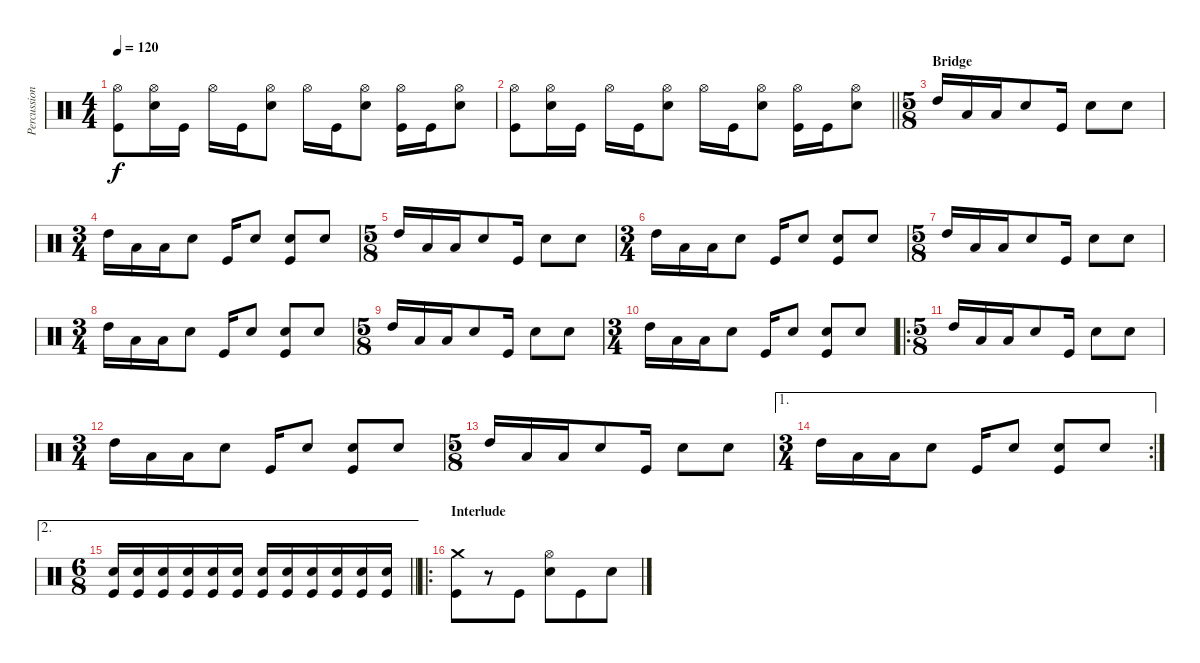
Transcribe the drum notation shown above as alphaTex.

\track ("Percussion" "Percussion") {instrument percussion}
\staff {score}
\articulation defaults
\ts (4 4)
\tempo 120
\clef neutral
\ks c
("Hi-Hat (open)" "Kick (hit)").8{dy f} ("Hi-Hat (open)" "Snare (hit) 2").16 "Kick (hit)".16 "Hi-Hat (open)".16 "Kick (hit)".16 ("Hi-Hat (open)" "Snare (hit) 2").8 "Hi-Hat (open)".16 "Kick (hit)".16 ("Hi-Hat (open)" "Snare (hit) 2").8 ("Hi-Hat (open)" "Kick (hit)").16 "Kick (hit)".16 ("Hi-Hat (open)" "Snare (hit) 2").8 |
\barLineRight lightlight
("Hi-Hat (open)" "Kick (hit)").8 ("Hi-Hat (open)" "Snare (hit) 2").16 "Kick (hit)".16 "Hi-Hat (open)".16 "Kick (hit)".16 ("Hi-Hat (open)" "Snare (hit) 2").8 "Hi-Hat (open)".16 "Kick (hit)".16 ("Hi-Hat (open)" "Snare (hit) 2").8 ("Hi-Hat (open)" "Kick (hit)").16 "Kick (hit)".16 ("Hi-Hat (open)" "Snare (hit) 2").8 |
\ts (5 8)
\section ("" "Bridge")
"High Tom (hit)".16 "Low Tom (hit)".16 "Low Tom (hit)".16 "Snare (hit) 2".8 "Kick (hit)".16 "Snare (hit) 2".8 "Snare (hit) 2".8 |
\ts (3 4)
"High Tom (hit)".16 "Low Tom (hit)".16 "Low Tom (hit)".16 "Snare (hit) 2".8 "Kick (hit)".16 "Snare (hit) 2".8 ("Snare (hit) 2" "Kick (hit)").8 "Snare (hit) 2".8 |
\ts (5 8)
"High Tom (hit)".16 "Low Tom (hit)".16 "Low Tom (hit)".16 "Snare (hit) 2".8 "Kick (hit)".16 "Snare (hit) 2".8 "Snare (hit) 2".8 |
\ts (3 4)
"High Tom (hit)".16 "Low Tom (hit)".16 "Low Tom (hit)".16 "Snare (hit) 2".8 "Kick (hit)".16 "Snare (hit) 2".8 ("Snare (hit) 2" "Kick (hit)").8 "Snare (hit) 2".8 |
\ts (5 8)
"High Tom (hit)".16 "Low Tom (hit)".16 "Low Tom (hit)".16 "Snare (hit) 2".8 "Kick (hit)".16 "Snare (hit) 2".8 "Snare (hit) 2".8 |
\ts (3 4)
"High Tom (hit)".16 "Low Tom (hit)".16 "Low Tom (hit)".16 "Snare (hit) 2".8 "Kick (hit)".16 "Snare (hit) 2".8 ("Snare (hit) 2" "Kick (hit)").8 "Snare (hit) 2".8 |
\ts (5 8)
"High Tom (hit)".16 "Low Tom (hit)".16 "Low Tom (hit)".16 "Snare (hit) 2".8 "Kick (hit)".16 "Snare (hit) 2".8 "Snare (hit) 2".8 |
\ts (3 4)
"High Tom (hit)".16 "Low Tom (hit)".16 "Low Tom (hit)".16 "Snare (hit) 2".8 "Kick (hit)".16 "Snare (hit) 2".8 ("Snare (hit) 2" "Kick (hit)").8 "Snare (hit) 2".8 |
\ro
\ts (5 8)
"High Tom (hit)".16 "Low Tom (hit)".16 "Low Tom (hit)".16 "Snare (hit) 2".8 "Kick (hit)".16 "Snare (hit) 2".8 "Snare (hit) 2".8 |
\ts (3 4)
"High Tom (hit)".16 "Low Tom (hit)".16 "Low Tom (hit)".16 "Snare (hit) 2".8 "Kick (hit)".16 "Snare (hit) 2".8 ("Snare (hit) 2" "Kick (hit)").8 "Snare (hit) 2".8 |
\ts (5 8)
"High Tom (hit)".16 "Low Tom (hit)".16 "Low Tom (hit)".16 "Snare (hit) 2".8 "Kick (hit)".16 "Snare (hit) 2".8 "Snare (hit) 2".8 |
\ae 1
\rc 2
\ts (3 4)
"High Tom (hit)".16 "Low Tom (hit)".16 "Low Tom (hit)".16 "Snare (hit) 2".8 "Kick (hit)".16 "Snare (hit) 2".8 ("Snare (hit) 2" "Kick (hit)").8 "Snare (hit) 2".8 |
\ae 2
\ts (6 8)
\barLineRight lightlight
("Snare (hit) 2" "Kick (hit)").16 ("Snare (hit) 2" "Kick (hit)").16 ("Snare (hit) 2" "Kick (hit)").16 ("Snare (hit) 2" "Kick (hit)").16 ("Snare (hit) 2" "Kick (hit)").16 ("Snare (hit) 2" "Kick (hit)").16 ("Snare (hit) 2" "Kick (hit)").16 ("Snare (hit) 2" "Kick (hit)").16 ("Snare (hit) 2" "Kick (hit)").16 ("Snare (hit) 2" "Kick (hit)").16 ("Snare (hit) 2" "Kick (hit)").16 ("Snare (hit) 2" "Kick (hit)").16 |
\ro
\section ("" "Interlude")
("Crash medium (hit)" "Kick (hit)").8 r.8 "Kick (hit)".8 ("Hi-Hat (open)" "Snare (hit) 2").8 "Kick (hit)".8 "Snare (hit) 2".8
